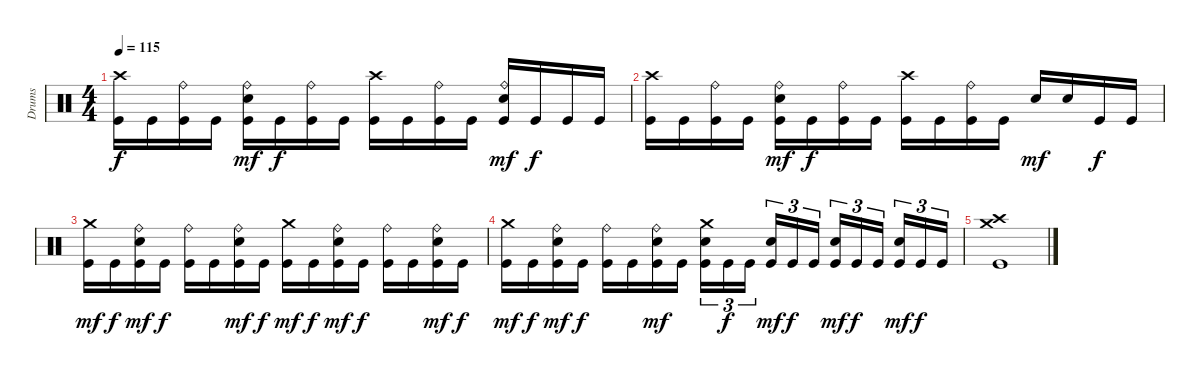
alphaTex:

\track ("Drums" "Drums") {instrument percussion}
\staff {score}
\articulation defaults
\ts (4 4)
\tempo 115
\clef neutral
\ks c
("Crash high (hit)" "Kick (hit)").16{dy f} "Kick (hit)".16 ("Ride (bell)" "Kick (hit)").16 "Kick (hit)".16 ("Ride (bell)" "Snare (hit) 2" "Kick (hit)").16{dy mf} "Kick (hit)".16{dy f} ("Ride (bell)" "Kick (hit)").16 "Kick (hit)".16 ("Crash high (hit)" "Kick (hit)").16 "Kick (hit)".16 ("Ride (bell)" "Kick (hit)").16 "Kick (hit)".16 ("Ride (bell)" "Snare (hit) 2" "Kick (hit)").16{dy mf} "Kick (hit)".16{dy f} "Kick (hit)".16 "Kick (hit)".16 |
("Crash high (hit)" "Kick (hit)").16 "Kick (hit)".16 ("Ride (bell)" "Kick (hit)").16 "Kick (hit)".16 ("Ride (bell)" "Snare (hit) 2" "Kick (hit)").16{dy mf} "Kick (hit)".16{dy f} ("Ride (bell)" "Kick (hit)").16 "Kick (hit)".16 ("Crash high (hit)" "Kick (hit)").16 "Kick (hit)".16 ("Ride (bell)" "Kick (hit)").16 "Kick (hit)".16 "Snare (hit) 2".16{dy mf} "Snare (hit) 2".16 "Kick (hit)".16{dy f} "Kick (hit)".16 |
("Crash medium (hit)" "Kick (hit)").16{dy mf} "Kick (hit)".16{dy f} ("Ride (bell)" "Snare (hit) 2" "Kick (hit)").16{dy mf} "Kick (hit)".16{dy f} ("Ride (bell)" "Kick (hit)").16 "Kick (hit)".16 ("Ride (bell)" "Snare (hit) 2" "Kick (hit)").16{dy mf} "Kick (hit)".16{dy f} ("Crash medium (hit)" "Kick (hit)").16{dy mf} "Kick (hit)".16{dy f} ("Ride (bell)" "Snare (hit) 2" "Kick (hit)").16{dy mf} "Kick (hit)".16{dy f} ("Ride (bell)" "Kick (hit)").16 "Kick (hit)".16 ("Ride (bell)" "Snare (hit) 2" "Kick (hit)").16{dy mf} "Kick (hit)".16{dy f} |
("Crash medium (hit)" "Kick (hit)").16{dy mf} "Kick (hit)".16{dy f} ("Ride (bell)" "Snare (hit) 2" "Kick (hit)").16{dy mf} "Kick (hit)".16{dy f} ("Ride (bell)" "Kick (hit)").16 "Kick (hit)".16 ("Ride (bell)" "Snare (hit) 2" "Kick (hit)").16{dy mf} "Kick (hit)".16 ("Crash medium (hit)" "Snare (hit) 2" "Kick (hit)").16{tu (3 2)} "Kick (hit)".16{tu (3 2) dy f} "Kick (hit)".16{tu (3 2) beam splitsecondary} ("Snare (hit) 2" "Kick (hit)").16{tu (3 2) dy mf} "Kick (hit)".16{tu (3 2) dy f} "Kick (hit)".16{tu (3 2)} ("Snare (hit) 2" "Kick (hit)").16{tu (3 2) dy mf} "Kick (hit)".16{tu (3 2) dy f} "Kick (hit)".16{tu (3 2) beam splitsecondary} ("Snare (hit) 2" "Kick (hit)").16{tu (3 2) dy mf} "Kick (hit)".16{tu (3 2) dy f} "Kick (hit)".16{tu (3 2)} |
("Crash high (hit)" "Crash medium (hit)" "Kick (hit)").1
